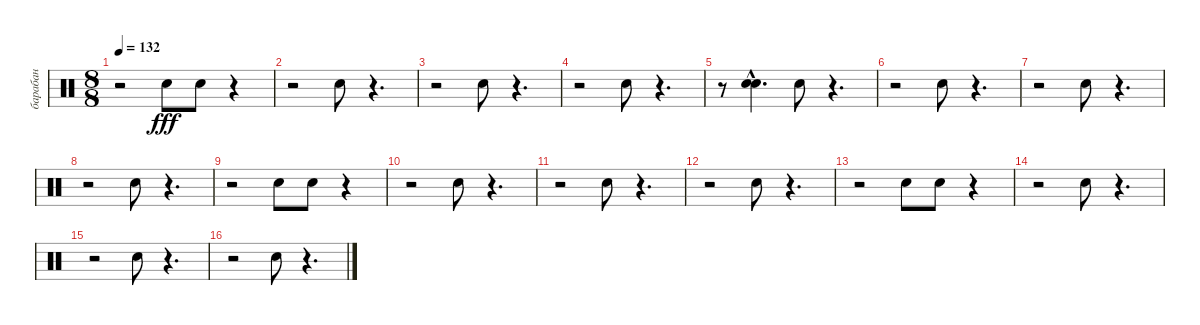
\track ("барабан" "барабан") {instrument percussion}
\staff {score}
\articulation defaults
\ts (8 8)
\tempo 132
\clef neutral
\ks c
r.2{dy fff} "Snare (hit) 2".8 "Snare (hit) 2".8 r.4 |
r.2 "Snare (hit) 2".8 r.4{d} |
r.2 "Snare (hit) 2".8 r.4{d} |
r.2 "Snare (hit) 2".8 r.4{d} |
r.8 ("Snare (hit) 2"{hac} "Snare (hit) 2").4{d} "Snare (hit) 2".8 r.4{d} |
r.2 "Snare (hit) 2".8 r.4{d} |
r.2 "Snare (hit) 2".8 r.4{d} |
r.2 "Snare (hit) 2".8 r.4{d} |
r.2 "Snare (hit) 2".8 "Snare (hit) 2".8 r.4 |
r.2 "Snare (hit) 2".8 r.4{d} |
r.2 "Snare (hit) 2".8 r.4{d} |
r.2 "Snare (hit) 2".8 r.4{d} |
r.2 "Snare (hit) 2".8 "Snare (hit) 2".8 r.4 |
r.2 "Snare (hit) 2".8 r.4{d} |
r.2 "Snare (hit) 2".8 r.4{d} |
r.2 "Snare (hit) 2".8 r.4{d}
